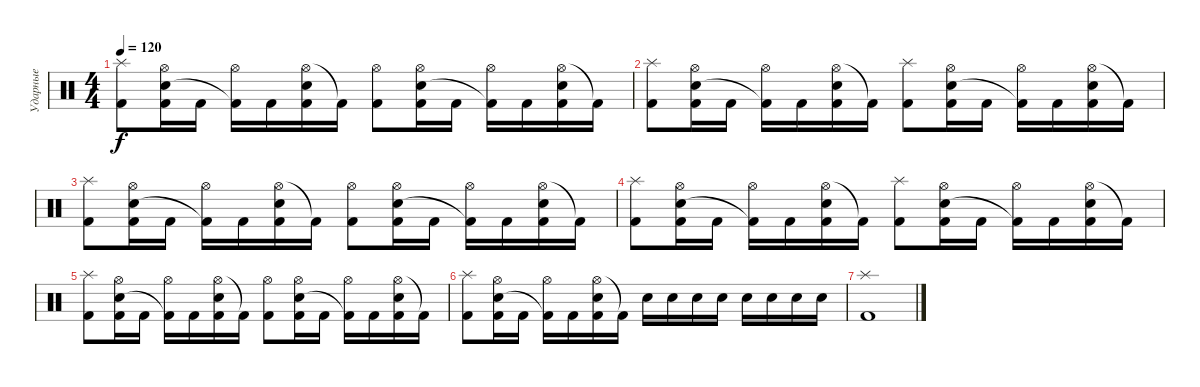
\track ("Ударные" "Ударные") {instrument percussion}
\staff {score}
\articulation defaults
\ts (4 4)
\tempo 120
\clef neutral
\ks c
("Splash (hit)" "Kick (hit) 2").8{dy f} ("Hi-Hat (open)" "Electric Snare (hit)" "Kick (hit) 2").16 "Kick (hit) 2".16 ("Hi-Hat (open)" "Kick (hit) 2"{t}).16 "Kick (hit) 2".16 ("Hi-Hat (open)" "Electric Snare (hit)" "Kick (hit) 2").16 "Kick (hit) 2"{t}.16 ("Hi-Hat (open)" "Kick (hit) 2").8 ("Hi-Hat (open)" "Electric Snare (hit)" "Kick (hit) 2").16 "Kick (hit) 2".16 ("Hi-Hat (open)" "Kick (hit) 2"{t}).16 "Kick (hit) 2".16 ("Hi-Hat (open)" "Electric Snare (hit)" "Kick (hit) 2").16 "Kick (hit) 2"{t}.16 |
("Splash (hit)" "Kick (hit) 2").8 ("Hi-Hat (open)" "Electric Snare (hit)" "Kick (hit) 2").16 "Kick (hit) 2".16 ("Hi-Hat (open)" "Kick (hit) 2"{t}).16 "Kick (hit) 2".16 ("Hi-Hat (open)" "Electric Snare (hit)" "Kick (hit) 2").16 "Kick (hit) 2"{t}.16 ("Splash (hit)" "Kick (hit) 2").8 ("Hi-Hat (open)" "Electric Snare (hit)" "Kick (hit) 2").16 "Kick (hit) 2".16 ("Hi-Hat (open)" "Kick (hit) 2"{t}).16 "Kick (hit) 2".16 ("Hi-Hat (open)" "Electric Snare (hit)" "Kick (hit) 2").16 "Kick (hit) 2"{t}.16 |
("Splash (hit)" "Kick (hit) 2").8 ("Hi-Hat (open)" "Electric Snare (hit)" "Kick (hit) 2").16 "Kick (hit) 2".16 ("Hi-Hat (open)" "Kick (hit) 2"{t}).16 "Kick (hit) 2".16 ("Hi-Hat (open)" "Electric Snare (hit)" "Kick (hit) 2").16 "Kick (hit) 2"{t}.16 ("Hi-Hat (open)" "Kick (hit) 2").8 ("Hi-Hat (open)" "Electric Snare (hit)" "Kick (hit) 2").16 "Kick (hit) 2".16 ("Hi-Hat (open)" "Kick (hit) 2"{t}).16 "Kick (hit) 2".16 ("Hi-Hat (open)" "Electric Snare (hit)" "Kick (hit) 2").16 "Kick (hit) 2"{t}.16 |
("Splash (hit)" "Kick (hit) 2").8 ("Hi-Hat (open)" "Electric Snare (hit)" "Kick (hit) 2").16 "Kick (hit) 2".16 ("Hi-Hat (open)" "Kick (hit) 2"{t}).16 "Kick (hit) 2".16 ("Hi-Hat (open)" "Electric Snare (hit)" "Kick (hit) 2").16 "Kick (hit) 2"{t}.16 ("Splash (hit)" "Kick (hit) 2").8 ("Hi-Hat (open)" "Electric Snare (hit)" "Kick (hit) 2").16 "Kick (hit) 2".16 ("Hi-Hat (open)" "Kick (hit) 2"{t}).16 "Kick (hit) 2".16 ("Hi-Hat (open)" "Electric Snare (hit)" "Kick (hit) 2").16 "Kick (hit) 2"{t}.16 |
("Splash (hit)" "Kick (hit) 2").8 ("Hi-Hat (open)" "Electric Snare (hit)" "Kick (hit) 2").16 "Kick (hit) 2".16 ("Hi-Hat (open)" "Kick (hit) 2"{t}).16 "Kick (hit) 2".16 ("Hi-Hat (open)" "Electric Snare (hit)" "Kick (hit) 2").16 "Kick (hit) 2"{t}.16 ("Hi-Hat (open)" "Kick (hit) 2").8 ("Hi-Hat (open)" "Electric Snare (hit)" "Kick (hit) 2").16 "Kick (hit) 2".16 ("Hi-Hat (open)" "Kick (hit) 2"{t}).16 "Kick (hit) 2".16 ("Hi-Hat (open)" "Electric Snare (hit)" "Kick (hit) 2").16 "Kick (hit) 2"{t}.16 |
("Splash (hit)" "Kick (hit) 2").8 ("Hi-Hat (open)" "Electric Snare (hit)" "Kick (hit) 2").16 "Kick (hit) 2".16 ("Hi-Hat (open)" "Kick (hit) 2"{t}).16 "Kick (hit) 2".16 ("Hi-Hat (open)" "Electric Snare (hit)" "Kick (hit) 2").16 "Kick (hit) 2"{t}.16 "Electric Snare (hit)".16 "Electric Snare (hit)".16 "Electric Snare (hit)".16 "Electric Snare (hit)".16 "Electric Snare (hit)".16 "Electric Snare (hit)".16 "Electric Snare (hit)".16 "Electric Snare (hit)".16 |
("Splash (hit)" "Kick (hit) 2").1
